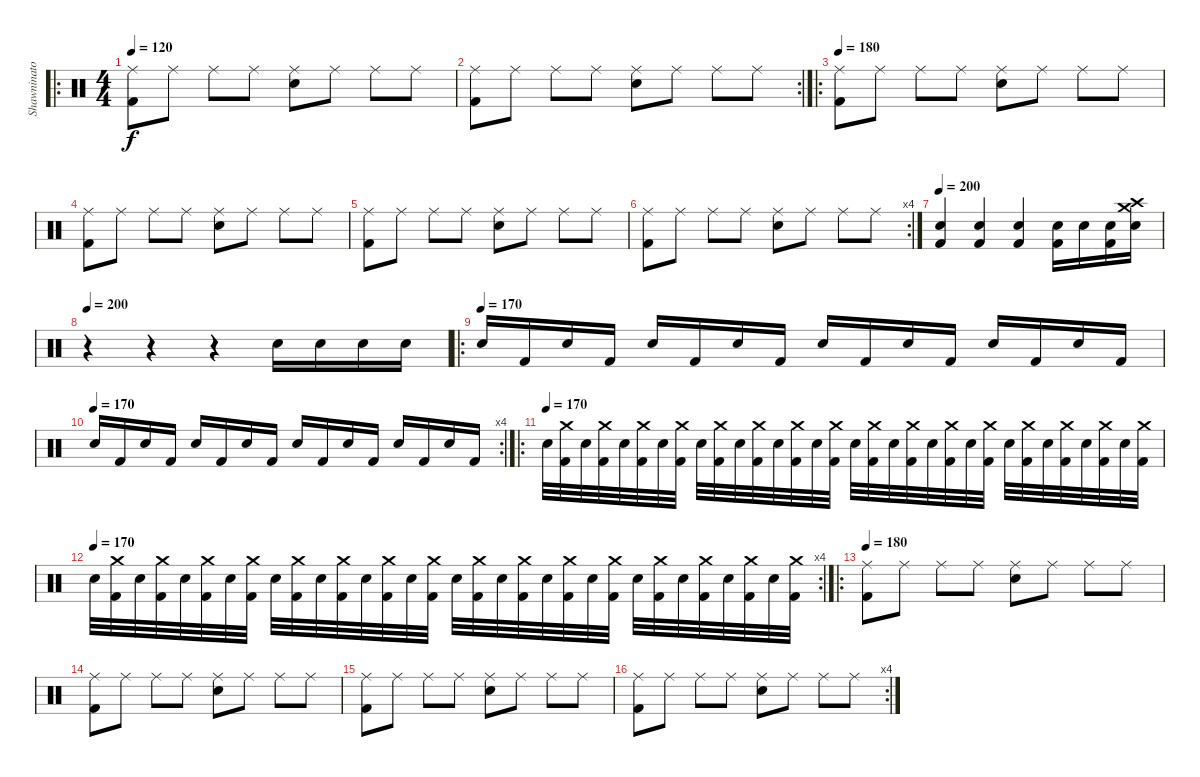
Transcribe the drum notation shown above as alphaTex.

\track ("Shawninator-Drums" "Shawninato") {instrument percussion}
\staff {score}
\articulation defaults
\ro
\ts (4 4)
\tempo 120
\tempo 180
\tempo 120
\clef neutral
\ks c
("Ride (middle)" "Kick (hit) 2").8{dy f} "Ride (middle)".8 "Ride (middle)".8 "Ride (middle)".8 ("Ride (middle)" "Snare (hit) 2").8 "Ride (middle)".8 "Ride (middle)".8 "Ride (middle)".8 |
\rc 2
("Ride (middle)" "Kick (hit) 2").8 "Ride (middle)".8 "Ride (middle)".8 "Ride (middle)".8 ("Ride (middle)" "Snare (hit) 2").8 "Ride (middle)".8 "Ride (middle)".8 "Ride (middle)".8 |
\ro
\tempo 180
("Ride (middle)" "Kick (hit) 2").8 "Ride (middle)".8 "Ride (middle)".8 "Ride (middle)".8 ("Ride (middle)" "Snare (hit) 2").8 "Ride (middle)".8 "Ride (middle)".8 "Ride (middle)".8 |
("Ride (middle)" "Kick (hit) 2").8 "Ride (middle)".8 "Ride (middle)".8 "Ride (middle)".8 ("Ride (middle)" "Snare (hit) 2").8 "Ride (middle)".8 "Ride (middle)".8 "Ride (middle)".8 |
("Ride (middle)" "Kick (hit) 2").8 "Ride (middle)".8 "Ride (middle)".8 "Ride (middle)".8 ("Ride (middle)" "Snare (hit) 2").8 "Ride (middle)".8 "Ride (middle)".8 "Ride (middle)".8 |
\rc 4
("Ride (middle)" "Kick (hit) 2").8 "Ride (middle)".8 "Ride (middle)".8 "Ride (middle)".8 ("Ride (middle)" "Snare (hit) 2").8 "Ride (middle)".8 "Ride (middle)".8 "Ride (middle)".8 |
\tempo 200
("Snare (hit) 2" "Kick (hit) 2").4 ("Snare (hit) 2" "Kick (hit) 2").4 ("Snare (hit) 2" "Kick (hit) 2").4 ("Snare (hit) 2" "Kick (hit) 2").16 "Snare (hit) 2".16 ("Snare (hit) 2" "Kick (hit) 2").16 ("Crash high (hit)" "Crash medium (hit)" "Snare (hit) 2").16 |
\tempo 200
r.4 r.4 r.4 "Snare (hit) 2".16 "Snare (hit) 2".16 "Snare (hit) 2".16 "Snare (hit) 2".16 |
\ro
\tempo 150
\tempo (170)
"Snare (hit) 2".16 "Kick (hit) 2".16 "Snare (hit) 2".16 "Kick (hit) 2".16 "Snare (hit) 2".16 "Kick (hit) 2".16 "Snare (hit) 2".16 "Kick (hit) 2".16 "Snare (hit) 2".16 "Kick (hit) 2".16 "Snare (hit) 2".16 "Kick (hit) 2".16 "Snare (hit) 2".16 "Kick (hit) 2".16 "Snare (hit) 2".16 "Kick (hit) 2".16 |
\rc 4
\tempo (170)
"Snare (hit) 2".16 "Kick (hit) 2".16 "Snare (hit) 2".16 "Kick (hit) 2".16 "Snare (hit) 2".16 "Kick (hit) 2".16 "Snare (hit) 2".16 "Kick (hit) 2".16 "Snare (hit) 2".16 "Kick (hit) 2".16 "Snare (hit) 2".16 "Kick (hit) 2".16 "Snare (hit) 2".16 "Kick (hit) 2".16 "Snare (hit) 2".16 "Kick (hit) 2".16 |
\ro
\tempo 150
\tempo (170)
"Snare (hit) 2".32 ("Crash medium (hit)" "Kick (hit) 2").32 "Snare (hit) 2".32 ("Crash medium (hit)" "Kick (hit) 2").32 "Snare (hit) 2".32 ("Crash medium (hit)" "Kick (hit) 2").32 "Snare (hit) 2".32 ("Crash medium (hit)" "Kick (hit) 2").32 "Snare (hit) 2".32 ("Crash medium (hit)" "Kick (hit) 2").32 "Snare (hit) 2".32 ("Crash medium (hit)" "Kick (hit) 2").32 "Snare (hit) 2".32 ("Crash medium (hit)" "Kick (hit) 2").32 "Snare (hit) 2".32 ("Crash medium (hit)" "Kick (hit) 2").32 "Snare (hit) 2".32 ("Crash medium (hit)" "Kick (hit) 2").32 "Snare (hit) 2".32 ("Crash medium (hit)" "Kick (hit) 2").32 "Snare (hit) 2".32 ("Crash medium (hit)" "Kick (hit) 2").32 "Snare (hit) 2".32 ("Crash medium (hit)" "Kick (hit) 2").32 "Snare (hit) 2".32 ("Crash medium (hit)" "Kick (hit) 2").32 "Snare (hit) 2".32 ("Crash medium (hit)" "Kick (hit) 2").32 "Snare (hit) 2".32 ("Crash medium (hit)" "Kick (hit) 2").32 "Snare (hit) 2".32 ("Crash medium (hit)" "Kick (hit) 2").32 |
\rc 4
\tempo (170)
"Snare (hit) 2".32 ("Crash medium (hit)" "Kick (hit) 2").32 "Snare (hit) 2".32 ("Crash medium (hit)" "Kick (hit) 2").32 "Snare (hit) 2".32 ("Crash medium (hit)" "Kick (hit) 2").32 "Snare (hit) 2".32 ("Crash medium (hit)" "Kick (hit) 2").32 "Snare (hit) 2".32 ("Crash medium (hit)" "Kick (hit) 2").32 "Snare (hit) 2".32 ("Crash medium (hit)" "Kick (hit) 2").32 "Snare (hit) 2".32 ("Crash medium (hit)" "Kick (hit) 2").32 "Snare (hit) 2".32 ("Crash medium (hit)" "Kick (hit) 2").32 "Snare (hit) 2".32 ("Crash medium (hit)" "Kick (hit) 2").32 "Snare (hit) 2".32 ("Crash medium (hit)" "Kick (hit) 2").32 "Snare (hit) 2".32 ("Crash medium (hit)" "Kick (hit) 2").32 "Snare (hit) 2".32 ("Crash medium (hit)" "Kick (hit) 2").32 "Snare (hit) 2".32 ("Crash medium (hit)" "Kick (hit) 2").32 "Snare (hit) 2".32 ("Crash medium (hit)" "Kick (hit) 2").32 "Snare (hit) 2".32 ("Crash medium (hit)" "Kick (hit) 2").32 "Snare (hit) 2".32 ("Crash medium (hit)" "Kick (hit) 2").32 |
\ro
\tempo 180
("Ride (middle)" "Kick (hit) 2").8 "Ride (middle)".8 "Ride (middle)".8 "Ride (middle)".8 ("Ride (middle)" "Snare (hit) 2").8 "Ride (middle)".8 "Ride (middle)".8 "Ride (middle)".8 |
("Ride (middle)" "Kick (hit) 2").8 "Ride (middle)".8 "Ride (middle)".8 "Ride (middle)".8 ("Ride (middle)" "Snare (hit) 2").8 "Ride (middle)".8 "Ride (middle)".8 "Ride (middle)".8 |
("Ride (middle)" "Kick (hit) 2").8 "Ride (middle)".8 "Ride (middle)".8 "Ride (middle)".8 ("Ride (middle)" "Snare (hit) 2").8 "Ride (middle)".8 "Ride (middle)".8 "Ride (middle)".8 |
\rc 4
("Ride (middle)" "Kick (hit) 2").8 "Ride (middle)".8 "Ride (middle)".8 "Ride (middle)".8 ("Ride (middle)" "Snare (hit) 2").8 "Ride (middle)".8 "Ride (middle)".8 "Ride (middle)".8
